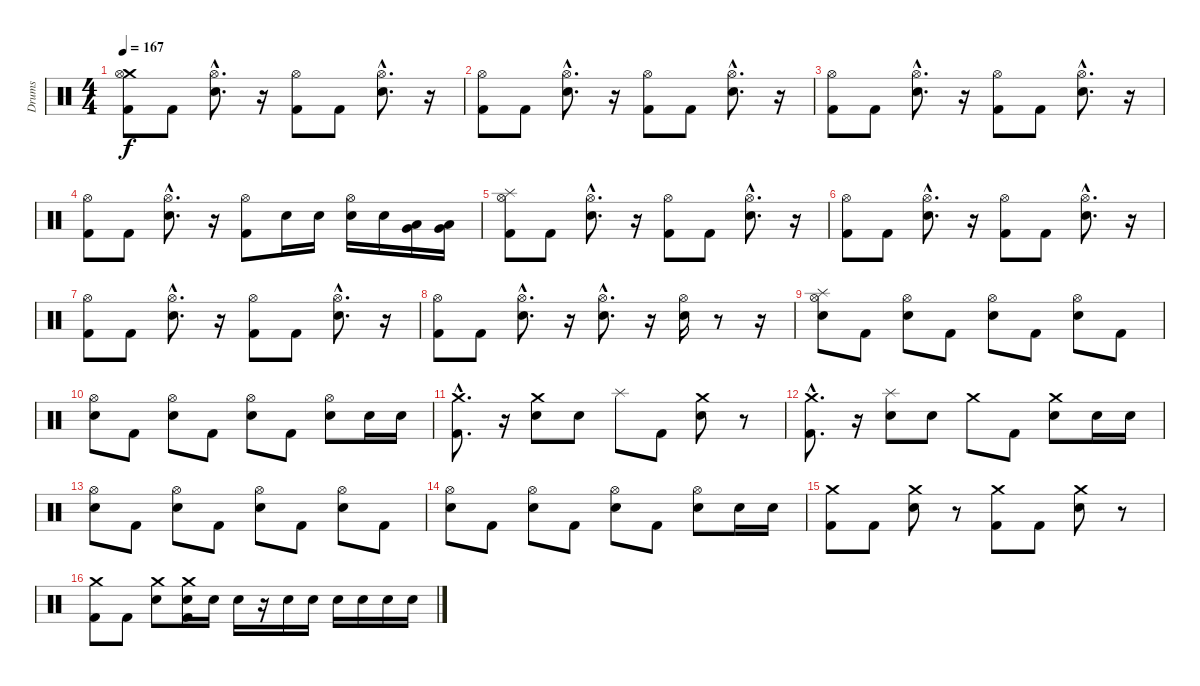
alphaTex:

\track ("Drums" "Drums") {instrument percussion}
\staff {score}
\articulation defaults
\ts (4 4)
\tempo 167
\clef neutral
\ks c
("Crash medium (hit)" "Kick (hit) 2" "Hi-Hat (open)").8{dy f} "Kick (hit) 2".8 ("Hi-Hat (open)"{hac} "Snare (hit) 2"{hac}).8{d} r.16 ("Kick (hit) 2" "Hi-Hat (open)").8 "Kick (hit) 2".8 ("Hi-Hat (open)"{hac} "Snare (hit) 2"{hac}).8{d} r.16 |
("Kick (hit) 2" "Hi-Hat (open)").8 "Kick (hit) 2".8 ("Hi-Hat (open)"{hac} "Snare (hit) 2"{hac}).8{d} r.16 ("Kick (hit) 2" "Hi-Hat (open)").8 "Kick (hit) 2".8 ("Hi-Hat (open)"{hac} "Snare (hit) 2"{hac}).8{d} r.16 |
("Hi-Hat (open)" "Kick (hit) 2").8 "Kick (hit) 2".8 ("Hi-Hat (open)"{hac} "Snare (hit) 2"{hac}).8{d} r.16 ("Kick (hit) 2" "Hi-Hat (open)").8 "Kick (hit) 2".8 ("Hi-Hat (open)"{hac} "Snare (hit) 2"{hac}).8{d} r.16 |
("Hi-Hat (open)" "Kick (hit) 2").8 "Kick (hit) 2".8 ("Hi-Hat (open)"{hac} "Snare (hit) 2"{hac}).8{d} r.16 ("Hi-Hat (open)" "Kick (hit) 2").8 "Snare (hit) 2".16 "Snare (hit) 2".16 ("Hi-Hat (open)" "Snare (hit) 2").16 "Snare (hit) 2".16 ("Very Low Tom (hit)" "Low Tom (hit)").16 ("Low Floor Tom (hit)" "Very Low Tom (hit)").16 |
("Kick (hit) 2" "Hi-Hat (open)" "Splash (hit)").8 "Kick (hit) 2".8 ("Hi-Hat (open)"{hac} "Snare (hit) 2"{hac}).8{d} r.16 ("Kick (hit) 2" "Hi-Hat (open)").8 "Kick (hit) 2".8 ("Hi-Hat (open)"{hac} "Snare (hit) 2"{hac}).8{d} r.16 |
("Kick (hit) 2" "Hi-Hat (open)").8 "Kick (hit) 2".8 ("Hi-Hat (open)"{hac} "Snare (hit) 2"{hac}).8{d} r.16 ("Kick (hit) 2" "Hi-Hat (open)").8 "Kick (hit) 2".8 ("Hi-Hat (open)"{hac} "Snare (hit) 2"{hac}).8{d} r.16 |
("Kick (hit) 2" "Hi-Hat (open)").8 "Kick (hit) 2".8 ("Hi-Hat (open)"{hac} "Snare (hit) 2"{hac}).8{d} r.16 ("Kick (hit) 2" "Hi-Hat (open)").8 "Kick (hit) 2".8 ("Hi-Hat (open)"{hac} "Snare (hit) 2"{hac}).8{d} r.16 |
("Kick (hit) 2" "Hi-Hat (open)").8 "Kick (hit) 2".8 ("Snare (hit) 2"{hac} "Hi-Hat (open)"{hac}).8{d} r.16 ("Snare (hit) 2"{hac} "Hi-Hat (open)"{hac}).8{d} r.16 ("Snare (hit) 2" "Hi-Hat (open)").16 r.8 r.16 |
("Splash (hit)" "Hi-Hat (open)" "Snare (hit) 2").8 "Kick (hit) 2".8 ("Hi-Hat (open)" "Snare (hit) 2").8 "Kick (hit) 2".8 ("Hi-Hat (open)" "Snare (hit) 2").8 "Kick (hit) 2".8 ("Hi-Hat (open)" "Snare (hit) 2").8 "Kick (hit) 2".8 |
("Snare (hit) 2" "Hi-Hat (open)").8 "Kick (hit) 2".8 ("Snare (hit) 2" "Hi-Hat (open)").8 "Kick (hit) 2".8 ("Snare (hit) 2" "Hi-Hat (open)").8 "Kick (hit) 2".8 ("Snare (hit) 2" "Hi-Hat (open)").8 "Snare (hit) 2".16 "Snare (hit) 2".16 |
("Kick (hit) 2"{hac} "Crash medium (hit)"{hac}).8{d} r.16 ("Snare (hit) 2" "Crash medium (hit)").8 "Snare (hit) 2".8 "Splash (hit)".8 "Kick (hit) 2".8 ("Snare (hit) 2" "Crash medium (hit)").8 r.8 |
("Kick (hit) 2"{hac} "Crash medium (hit)"{hac}).8{d} r.16 ("Snare (hit) 2" "Splash (hit)").8 "Snare (hit) 2".8 "Crash medium (hit)".8 "Kick (hit) 2".8 ("Snare (hit) 2" "Crash medium (hit)").8 "Snare (hit) 2".16 "Snare (hit) 2".16 |
("Hi-Hat (open)" "Snare (hit) 2").8 "Kick (hit) 2".8 ("Hi-Hat (open)" "Snare (hit) 2").8 "Kick (hit) 2".8 ("Hi-Hat (open)" "Snare (hit) 2").8 "Kick (hit) 2".8 ("Hi-Hat (open)" "Snare (hit) 2").8 "Kick (hit) 2".8 |
("Snare (hit) 2" "Hi-Hat (open)").8 "Kick (hit) 2".8 ("Snare (hit) 2" "Hi-Hat (open)").8 "Kick (hit) 2".8 ("Snare (hit) 2" "Hi-Hat (open)").8 "Kick (hit) 2".8 ("Snare (hit) 2" "Hi-Hat (open)").8 "Snare (hit) 2".16 "Snare (hit) 2".16 |
("Kick (hit) 2" "Crash medium (hit)").8 "Kick (hit) 2".8 ("Snare (hit) 2" "Crash medium (hit)").8 r.8 ("Kick (hit) 2" "Crash medium (hit)").8 "Kick (hit) 2".8 ("Snare (hit) 2" "Crash medium (hit)").8 r.8 |
("Kick (hit) 2" "Crash medium (hit)").8 "Kick (hit) 2".8 ("Snare (hit) 2" "Crash medium (hit)").8 ("Kick (hit) 2" "Snare (hit) 2" "Crash medium (hit)").16 "Snare (hit) 2".16 "Snare (hit) 2".16 r.16 "Snare (hit) 2".16 "Snare (hit) 2".16 "Snare (hit) 2".16 "Snare (hit) 2".16 "Snare (hit) 2".16 "Snare (hit) 2".16
